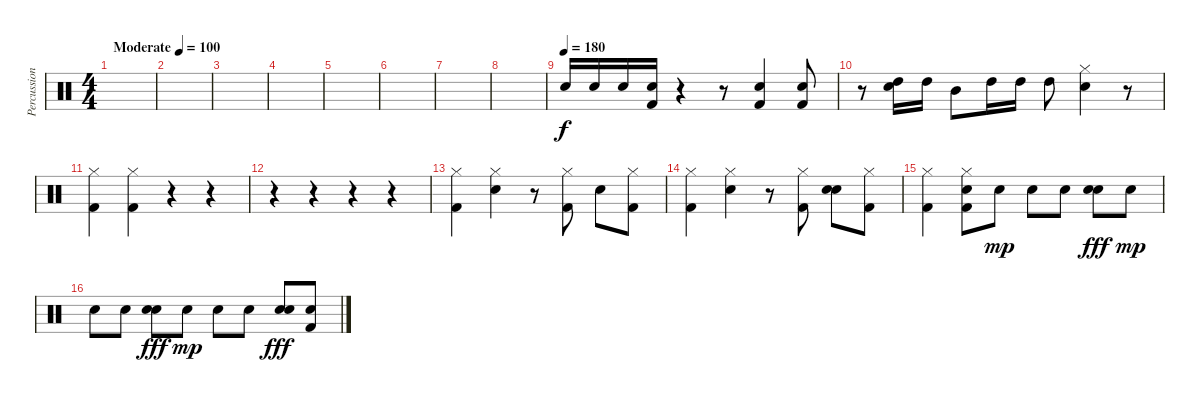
\track ("Percussion" "Percussion") {instrument percussion}
\staff {score}
\articulation defaults
\ts (4 4)
\tempo (100 "Moderate")
\clef neutral
\ks c
|
|
|
|
|
|
|
|
\tempo (180)
"Snare (hit) 2".16 "Snare (hit) 2".16 "Snare (hit) 2".16 ("Snare (hit) 2" "Kick (hit) 2").16 r.4 r.8 ("Snare (hit) 2" "Kick (hit) 2").4 ("Snare (hit) 2" "Kick (hit) 2").8 |
r.8 ("Snare (hit) 2" "High Tom (hit)").16 "High Tom (hit)".16 "Mid Tom (hit)".8 "High Tom (hit)".16 "High Tom (hit)".16 "High Tom (hit)".8 ("Hi-Hat (closed)" "Snare (hit) 2").4 r.8 |
("Hi-Hat (closed)" "Kick (hit) 2").4 ("Hi-Hat (closed)" "Kick (hit) 2").4 r.4 r.4 |
r.4 r.4 r.4 r.4 |
("Hi-Hat (closed)" "Kick (hit) 2").4 ("Hi-Hat (closed)" "Snare (hit) 2").4 r.8 ("Hi-Hat (closed)" "Kick (hit) 2").8 "Snare (hit) 2".8 ("Hi-Hat (closed)" "Kick (hit) 2").8 |
("Hi-Hat (closed)" "Kick (hit) 2").4 ("Hi-Hat (closed)" "Snare (hit) 2").4 r.8 ("Hi-Hat (closed)" "Kick (hit) 2").8 ("Snare (hit) 2" "Snare (hit) 2").8 ("Hi-Hat (closed)" "Kick (hit) 2").8 |
("Hi-Hat (closed)" "Kick (hit) 2").4 ("Hi-Hat (closed)" "Snare (hit) 2" "Kick (hit) 2").8 "Snare (hit) 2".8{dy mp} "Snare (hit) 2".8 "Snare (hit) 2".8 ("Snare (hit) 2" "Snare (hit) 2").8{dy fff} "Snare (hit) 2".8{dy mp} |
"Snare (hit) 2".8 "Snare (hit) 2".8 ("Snare (hit) 2" "Snare (hit) 2").8{dy fff} "Snare (hit) 2".8{dy mp} "Snare (hit) 2".8 "Snare (hit) 2".8 ("Snare (hit) 2" "Snare (hit) 2").8{dy fff} ("Snare (hit) 2" "Kick (hit) 2").8
